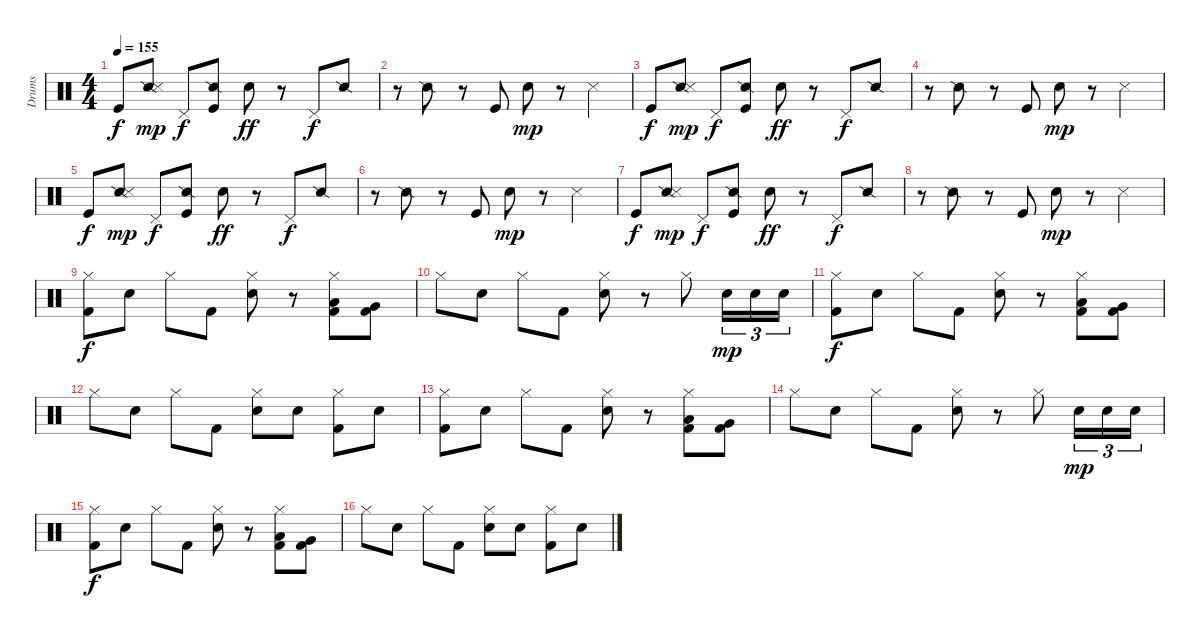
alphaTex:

\track ("Drums" "Drums") {instrument percussion}
\staff {score}
\articulation defaults
\ts (4 4)
\tempo 155
\clef neutral
\ks c "Kick (hit)".8{dy f}
("Snare (side stick) 2" "Snare (side stick) 3").8{dy mp} "Pedal Hi-Hat (hit)".8{dy f} ("Snare (side stick) 2" "Kick (hit)").8 "Electric Snare (hit)".8{dy ff} r.8 "Pedal Hi-Hat (hit)".8{dy f} "Snare (side stick) 2".8 |
r.8 "Snare (side stick) 2".8 r.8 "Kick (hit)".8 "Electric Snare (hit)".8{dy mp} r.8 "Snare (side stick) 3".4 |
"Kick (hit)".8{dy f} ("Snare (side stick) 2" "Snare (side stick) 3").8{dy mp} "Pedal Hi-Hat (hit)".8{dy f} ("Snare (side stick) 2" "Kick (hit)").8 "Electric Snare (hit)".8{dy ff} r.8 "Pedal Hi-Hat (hit)".8{dy f} "Snare (side stick) 2".8 |
r.8 "Snare (side stick) 2".8 r.8 "Kick (hit)".8 "Electric Snare (hit)".8{dy mp} r.8 "Snare (side stick) 3".4 |
"Kick (hit)".8{dy f} ("Snare (side stick) 2" "Snare (side stick) 3").8{dy mp} "Pedal Hi-Hat (hit)".8{dy f} ("Snare (side stick) 2" "Kick (hit)").8 "Electric Snare (hit)".8{dy ff} r.8 "Pedal Hi-Hat (hit)".8{dy f} "Snare (side stick) 2".8 |
r.8 "Snare (side stick) 2".8 r.8 "Kick (hit)".8 "Electric Snare (hit)".8{dy mp} r.8 "Snare (side stick) 3".4 |
"Kick (hit)".8{dy f} ("Snare (side stick) 2" "Snare (side stick) 3").8{dy mp} "Pedal Hi-Hat (hit)".8{dy f} ("Snare (side stick) 2" "Kick (hit)").8 "Electric Snare (hit)".8{dy ff} r.8 "Pedal Hi-Hat (hit)".8{dy f} "Snare (side stick) 2".8 |
r.8 "Snare (side stick) 2".8 r.8 "Kick (hit)".8 "Electric Snare (hit)".8{dy mp} r.8 "Snare (side stick) 3".4 |
("Hi-Hat (closed)" "Kick (hit) 2").8{dy f} "Electric Snare (hit)".8 "Hi-Hat (closed)".8 "Kick (hit) 2".8 ("Hi-Hat (closed)" "Electric Snare (hit)").8 r.8 ("Hi-Hat (closed)" "Low Tom (hit)" "Kick (hit) 2").8 ("Very Low Tom (hit)" "Kick (hit) 2").8 |
"Hi-Hat (closed)".8 "Electric Snare (hit)".8 "Hi-Hat (closed)".8 "Kick (hit) 2".8 ("Hi-Hat (closed)" "Electric Snare (hit)").8 r.8 "Hi-Hat (closed)".8 "Electric Snare (hit)".16{tu (3 2) dy mp} "Electric Snare (hit)".16{tu (3 2)} "Electric Snare (hit)".16{tu (3 2)} |
("Hi-Hat (closed)" "Kick (hit) 2").8{dy f} "Electric Snare (hit)".8 "Hi-Hat (closed)".8 "Kick (hit) 2".8 ("Hi-Hat (closed)" "Electric Snare (hit)").8 r.8 ("Hi-Hat (closed)" "Low Tom (hit)" "Kick (hit) 2").8 ("Very Low Tom (hit)" "Kick (hit) 2").8 |
"Hi-Hat (closed)".8 "Electric Snare (hit)".8 "Hi-Hat (closed)".8 "Kick (hit) 2".8 ("Hi-Hat (closed)" "Electric Snare (hit)").8 "Electric Snare (hit)".8 ("Hi-Hat (closed)" "Kick (hit) 2").8 "Electric Snare (hit)".8 |
("Hi-Hat (closed)" "Kick (hit) 2").8 "Electric Snare (hit)".8 "Hi-Hat (closed)".8 "Kick (hit) 2".8 ("Hi-Hat (closed)" "Electric Snare (hit)").8 r.8 ("Hi-Hat (closed)" "Low Tom (hit)" "Kick (hit) 2").8 ("Very Low Tom (hit)" "Kick (hit) 2").8 |
"Hi-Hat (closed)".8 "Electric Snare (hit)".8 "Hi-Hat (closed)".8 "Kick (hit) 2".8 ("Hi-Hat (closed)" "Electric Snare (hit)").8 r.8 "Hi-Hat (closed)".8 "Electric Snare (hit)".16{tu (3 2) dy mp} "Electric Snare (hit)".16{tu (3 2)} "Electric Snare (hit)".16{tu (3 2)} |
("Hi-Hat (closed)" "Kick (hit) 2").8{dy f} "Electric Snare (hit)".8 "Hi-Hat (closed)".8 "Kick (hit) 2".8 ("Hi-Hat (closed)" "Electric Snare (hit)").8 r.8 ("Hi-Hat (closed)" "Low Tom (hit)" "Kick (hit) 2").8 ("Very Low Tom (hit)" "Kick (hit) 2").8 |
"Hi-Hat (closed)".8 "Electric Snare (hit)".8 "Hi-Hat (closed)".8 "Kick (hit) 2".8 ("Hi-Hat (closed)" "Electric Snare (hit)").8 "Electric Snare (hit)".8 ("Hi-Hat (closed)" "Kick (hit) 2").8 "Electric Snare (hit)".8
